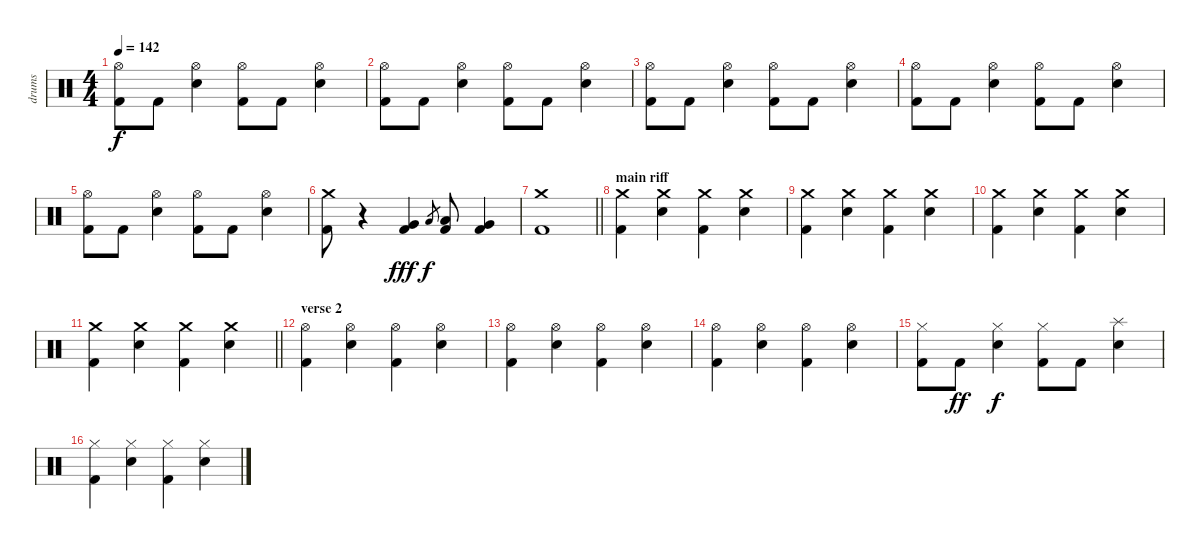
\track ("drums" "drums") {instrument percussion}
\staff {score}
\articulation defaults
\ts (4 4)
\tempo 142
\clef neutral
\ks c
("Hi-Hat (open)" "Kick (hit) 2").8{dy f} "Kick (hit) 2".8 ("Hi-Hat (open)" "Electric Snare (hit)").4 ("Hi-Hat (open)" "Kick (hit) 2").8 "Kick (hit) 2".8 ("Hi-Hat (open)" "Electric Snare (hit)").4 |
("Hi-Hat (open)" "Kick (hit) 2").8 "Kick (hit) 2".8 ("Hi-Hat (open)" "Electric Snare (hit)").4 ("Hi-Hat (open)" "Kick (hit) 2").8 "Kick (hit) 2".8 ("Hi-Hat (open)" "Electric Snare (hit)").4 |
("Hi-Hat (open)" "Kick (hit) 2").8 "Kick (hit) 2".8 ("Hi-Hat (open)" "Electric Snare (hit)").4 ("Hi-Hat (open)" "Kick (hit) 2").8 "Kick (hit) 2".8 ("Hi-Hat (open)" "Electric Snare (hit)").4 |
("Hi-Hat (open)" "Kick (hit) 2").8 "Kick (hit) 2".8 ("Hi-Hat (open)" "Electric Snare (hit)").4 ("Hi-Hat (open)" "Kick (hit) 2").8 "Kick (hit) 2".8 ("Hi-Hat (open)" "Electric Snare (hit)").4 |
("Hi-Hat (open)" "Kick (hit) 2").8 "Kick (hit) 2".8 ("Hi-Hat (open)" "Electric Snare (hit)").4 ("Hi-Hat (open)" "Kick (hit) 2").8 "Kick (hit) 2".8 ("Hi-Hat (open)" "Electric Snare (hit)").4 |
("Crash medium (hit)" "Kick (hit) 2").8 r.4 ("Very Low Tom (hit)" "Kick (hit) 2").4{dy fff} "Low Tom (hit)".8{gr dy f} ("Low Tom (hit)" "Kick (hit) 2").8 ("Very Low Tom (hit)" "Kick (hit) 2").4 |
\barLineRight lightlight
("Crash medium (hit)" "Kick (hit) 2").1 |
\section ("" "main riff")
("Crash medium (hit)" "Kick (hit) 2").4 ("Crash medium (hit)" "Electric Snare (hit)").4 ("Crash medium (hit)" "Kick (hit) 2").4 ("Crash medium (hit)" "Electric Snare (hit)").4 |
("Crash medium (hit)" "Kick (hit) 2").4 ("Crash medium (hit)" "Electric Snare (hit)").4 ("Crash medium (hit)" "Kick (hit) 2").4 ("Crash medium (hit)" "Electric Snare (hit)").4 |
("Crash medium (hit)" "Kick (hit) 2").4 ("Crash medium (hit)" "Electric Snare (hit)").4 ("Crash medium (hit)" "Kick (hit) 2").4 ("Crash medium (hit)" "Electric Snare (hit)").4 |
\barLineRight lightlight
("Crash medium (hit)" "Kick (hit) 2").4 ("Crash medium (hit)" "Electric Snare (hit)").4 ("Crash medium (hit)" "Kick (hit) 2").4 ("Crash medium (hit)" "Electric Snare (hit)").4 |
\section ("" "verse 2")
("Hi-Hat (open)" "Kick (hit) 2").4 ("Hi-Hat (open)" "Electric Snare (hit)").4 ("Hi-Hat (open)" "Kick (hit) 2").4 ("Hi-Hat (open)" "Electric Snare (hit)").4 |
("Hi-Hat (open)" "Kick (hit) 2").4 ("Hi-Hat (open)" "Electric Snare (hit)").4 ("Hi-Hat (open)" "Kick (hit) 2").4 ("Hi-Hat (open)" "Electric Snare (hit)").4 |
("Hi-Hat (open)" "Kick (hit) 2").4 ("Hi-Hat (open)" "Electric Snare (hit)").4 ("Hi-Hat (open)" "Kick (hit) 2").4 ("Hi-Hat (open)" "Electric Snare (hit)").4 |
("Hi-Hat (closed)" "Kick (hit) 2").8 "Kick (hit) 2".8{dy ff} ("Hi-Hat (closed)" "Electric Snare (hit)").4{dy f} ("Hi-Hat (closed)" "Kick (hit) 2").8 "Kick (hit) 2".8 ("Splash (hit)" "Electric Snare (hit)").4 |
("Hi-Hat (closed)" "Kick (hit) 2").4 ("Hi-Hat (closed)" "Electric Snare (hit)").4 ("Hi-Hat (closed)" "Kick (hit) 2").4 ("Hi-Hat (closed)" "Electric Snare (hit)").4
